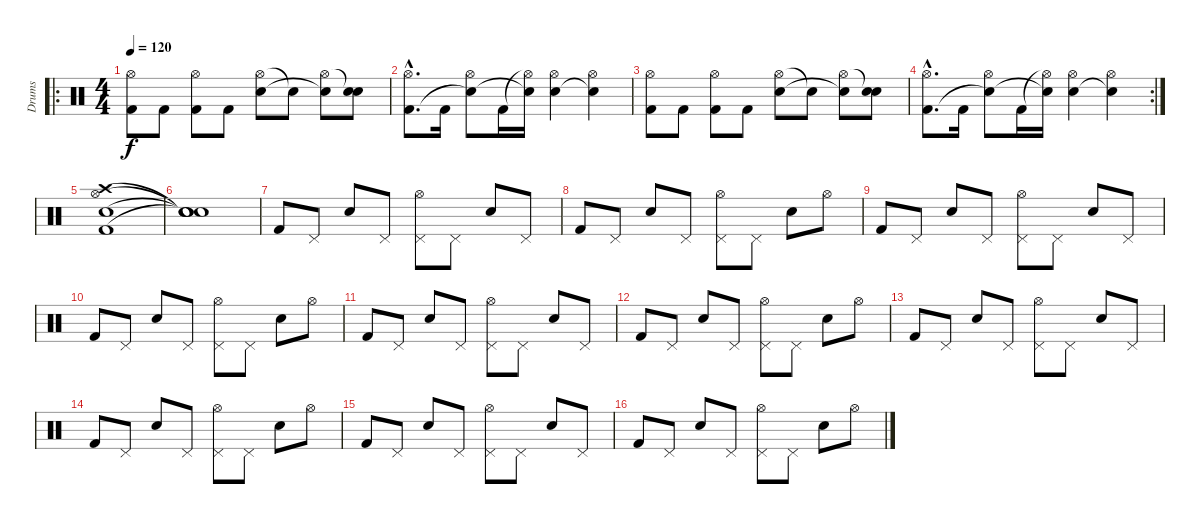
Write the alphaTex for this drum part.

\track ("Drums" "Drums") {instrument percussion}
\staff {score}
\articulation defaults
\ro
\ts (4 4)
\tempo 120
\clef neutral
\ks c
("Hi-Hat (open)" "Kick (hit) 2").8{dy f} "Kick (hit) 2".8 ("Hi-Hat (open)" "Kick (hit) 2").8 "Kick (hit) 2".8 ("Hi-Hat (open)" "Snare (hit) 2").8 "Snare (hit)"{t}.8 ("Hi-Hat (open)" "Snare (hit)"{t}).8 ("Snare (hit)"{t} "Snare (hit) 2").8 |
("Hi-Hat (open)"{hac} "Kick (hit) 2"{hac}).8{d} "Kick (hit) 2".16 ("Hi-Hat (open)" "Snare (hit)"{t}).8 "Kick (hit) 2".16 ("Hi-Hat (open)"{t} "Snare (hit)"{t}).16 ("Hi-Hat (open)" "Snare (hit) 2").4 ("Hi-Hat (open)" "Snare (hit)"{t}).4 |
("Hi-Hat (open)" "Kick (hit) 2").8 "Kick (hit) 2".8 ("Hi-Hat (open)" "Kick (hit) 2").8 "Kick (hit) 2".8 ("Hi-Hat (open)" "Snare (hit) 2").8 "Snare (hit)"{t}.8 ("Hi-Hat (open)" "Snare (hit)"{t}).8 ("Snare (hit)"{t} "Snare (hit) 2").8 |
\rc 2
("Hi-Hat (open)"{hac} "Kick (hit) 2"{hac}).8{d} "Kick (hit) 2".16 ("Hi-Hat (open)" "Snare (hit)"{t}).8 "Kick (hit) 2".16 ("Hi-Hat (open)"{t} "Snare (hit)"{t}).16 ("Hi-Hat (open)" "Snare (hit) 2").4 ("Hi-Hat (open)" "Snare (hit)"{t}).4 |
("Hi-Hat (open)" "Snare (hit) 2" "Kick (hit) 2" "Crash high (hit)").1 |
("Snare (hit)"{t} "Snare (hit)"{t} "Snare (hit)"{t} "Snare (hit)"{t}).1 |
"Kick (hit) 2".8 "Pedal Hi-Hat (hit)".8 "Snare (hit) 2".8 "Pedal Hi-Hat (hit)".8 ("Pedal Hi-Hat (hit)" "Hi-Hat (open)").8 "Pedal Hi-Hat (hit)".8 "Snare (hit) 2".8 "Pedal Hi-Hat (hit)".8 |
"Kick (hit) 2".8 "Pedal Hi-Hat (hit)".8 "Snare (hit) 2".8 "Pedal Hi-Hat (hit)".8 ("Pedal Hi-Hat (hit)" "Hi-Hat (open)").8 "Pedal Hi-Hat (hit)".8 "Snare (hit) 2".8 "Hi-Hat (open)".8 |
"Kick (hit) 2".8 "Pedal Hi-Hat (hit)".8 "Snare (hit) 2".8 "Pedal Hi-Hat (hit)".8 ("Pedal Hi-Hat (hit)" "Hi-Hat (open)").8 "Pedal Hi-Hat (hit)".8 "Snare (hit) 2".8 "Pedal Hi-Hat (hit)".8 |
"Kick (hit) 2".8 "Pedal Hi-Hat (hit)".8 "Snare (hit) 2".8 "Pedal Hi-Hat (hit)".8 ("Pedal Hi-Hat (hit)" "Hi-Hat (open)").8 "Pedal Hi-Hat (hit)".8 "Snare (hit) 2".8 "Hi-Hat (open)".8 |
"Kick (hit) 2".8 "Pedal Hi-Hat (hit)".8 "Snare (hit) 2".8 "Pedal Hi-Hat (hit)".8 ("Pedal Hi-Hat (hit)" "Hi-Hat (open)").8 "Pedal Hi-Hat (hit)".8 "Snare (hit) 2".8 "Pedal Hi-Hat (hit)".8 |
"Kick (hit) 2".8 "Pedal Hi-Hat (hit)".8 "Snare (hit) 2".8 "Pedal Hi-Hat (hit)".8 ("Pedal Hi-Hat (hit)" "Hi-Hat (open)").8 "Pedal Hi-Hat (hit)".8 "Snare (hit) 2".8 "Hi-Hat (open)".8 |
"Kick (hit) 2".8 "Pedal Hi-Hat (hit)".8 "Snare (hit) 2".8 "Pedal Hi-Hat (hit)".8 ("Pedal Hi-Hat (hit)" "Hi-Hat (open)").8 "Pedal Hi-Hat (hit)".8 "Snare (hit) 2".8 "Pedal Hi-Hat (hit)".8 |
"Kick (hit) 2".8 "Pedal Hi-Hat (hit)".8 "Snare (hit) 2".8 "Pedal Hi-Hat (hit)".8 ("Pedal Hi-Hat (hit)" "Hi-Hat (open)").8 "Pedal Hi-Hat (hit)".8 "Snare (hit) 2".8 "Hi-Hat (open)".8 |
"Kick (hit) 2".8 "Pedal Hi-Hat (hit)".8 "Snare (hit) 2".8 "Pedal Hi-Hat (hit)".8 ("Pedal Hi-Hat (hit)" "Hi-Hat (open)").8 "Pedal Hi-Hat (hit)".8 "Snare (hit) 2".8 "Pedal Hi-Hat (hit)".8 |
"Kick (hit) 2".8 "Pedal Hi-Hat (hit)".8 "Snare (hit) 2".8 "Pedal Hi-Hat (hit)".8 ("Pedal Hi-Hat (hit)" "Hi-Hat (open)").8 "Pedal Hi-Hat (hit)".8 "Snare (hit) 2".8 "Hi-Hat (open)".8
